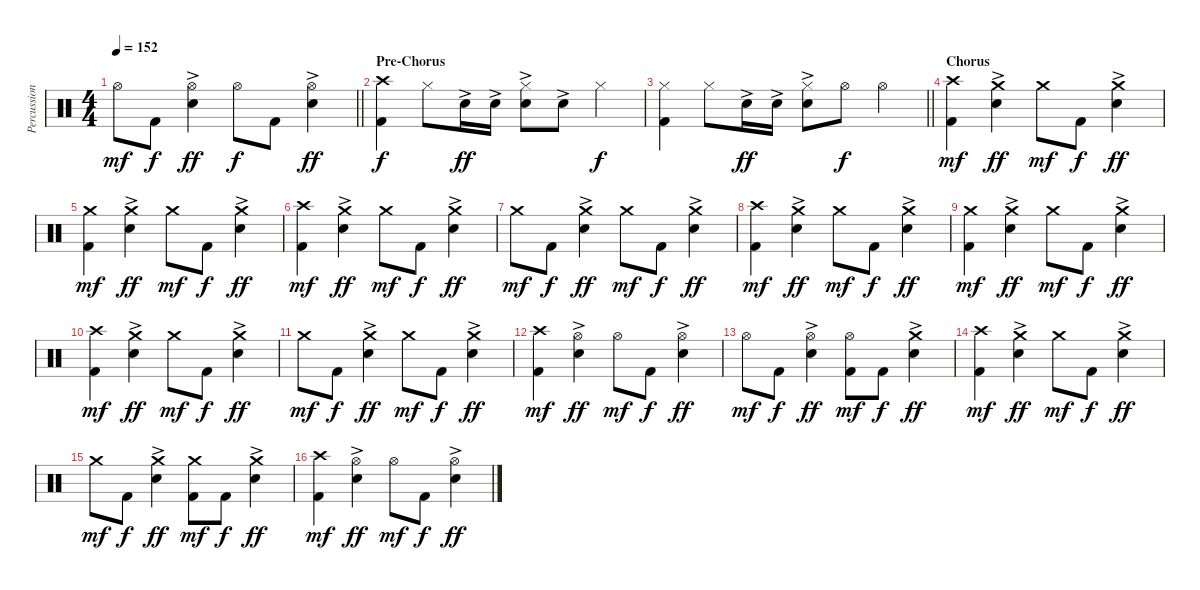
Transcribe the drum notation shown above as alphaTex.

\track ("Percussion" "Percussion") {instrument percussion}
\staff {score}
\articulation defaults
\ts (4 4)
\tempo 152
\clef neutral
\barLineRight lightlight
\ks c "Hi-Hat (open)".8{dy mf} "Kick (hit) 2".8{dy f}
("Hi-Hat (open)" "Electric Snare (hit)"{ac}).4{dy ff} "Hi-Hat (open)".8{dy f} "Kick (hit) 2".8 ("Hi-Hat (open)" "Electric Snare (hit)"{ac}).4{dy ff} |
\section ("" "Pre-Chorus")
("Crash high (hit)" "Kick (hit) 2").4{dy f} "Hi-Hat (closed)".8 "Electric Snare (hit)"{ac}.16{dy ff} "Electric Snare (hit)"{ac}.16 ("Hi-Hat (closed)" "Electric Snare (hit)"{ac}).8 "Electric Snare (hit)"{ac}.8 "Hi-Hat (closed)".4{dy f} |
\barLineRight lightlight
("Hi-Hat (closed)" "Kick (hit) 2").4 "Hi-Hat (closed)".8 "Electric Snare (hit)"{ac}.16{dy ff} "Electric Snare (hit)"{ac}.16 ("Hi-Hat (closed)" "Electric Snare (hit)"{ac}).8 "Hi-Hat (open)".8{dy f} "Hi-Hat (open)".4 |
\section ("" "Chorus")
("Crash high (hit)" "Kick (hit) 2").4{dy mf} ("Crash medium (hit)" "Electric Snare (hit)"{ac}).4{dy ff} "Crash medium (hit)".8{dy mf} "Kick (hit) 2".8{dy f} ("Crash medium (hit)" "Electric Snare (hit)"{ac}).4{dy ff} |
("Crash medium (hit)" "Kick (hit) 2").4{dy mf} ("Crash medium (hit)" "Electric Snare (hit)"{ac}).4{dy ff} "Crash medium (hit)".8{dy mf} "Kick (hit) 2".8{dy f} ("Crash medium (hit)" "Electric Snare (hit)"{ac}).4{dy ff} |
("Crash high (hit)" "Kick (hit) 2").4{dy mf} ("Crash medium (hit)" "Electric Snare (hit)"{ac}).4{dy ff} "Crash medium (hit)".8{dy mf} "Kick (hit) 2".8{dy f} ("Crash medium (hit)" "Electric Snare (hit)"{ac}).4{dy ff} |
"Crash medium (hit)".8{dy mf} "Kick (hit) 2".8{dy f} ("Crash medium (hit)" "Electric Snare (hit)"{ac}).4{dy ff} "Crash medium (hit)".8{dy mf} "Kick (hit) 2".8{dy f} ("Crash medium (hit)" "Electric Snare (hit)"{ac}).4{dy ff} |
("Crash high (hit)" "Kick (hit) 2").4{dy mf} ("Crash medium (hit)" "Electric Snare (hit)"{ac}).4{dy ff} "Crash medium (hit)".8{dy mf} "Kick (hit) 2".8{dy f} ("Crash medium (hit)" "Electric Snare (hit)"{ac}).4{dy ff} |
("Crash medium (hit)" "Kick (hit) 2").4{dy mf} ("Crash medium (hit)" "Electric Snare (hit)"{ac}).4{dy ff} "Crash medium (hit)".8{dy mf} "Kick (hit) 2".8{dy f} ("Crash medium (hit)" "Electric Snare (hit)"{ac}).4{dy ff} |
("Crash high (hit)" "Kick (hit) 2").4{dy mf} ("Crash medium (hit)" "Electric Snare (hit)"{ac}).4{dy ff} "Crash medium (hit)".8{dy mf} "Kick (hit) 2".8{dy f} ("Crash medium (hit)" "Electric Snare (hit)"{ac}).4{dy ff} |
"Crash medium (hit)".8{dy mf} "Kick (hit) 2".8{dy f} ("Crash medium (hit)" "Electric Snare (hit)"{ac}).4{dy ff} "Crash medium (hit)".8{dy mf} "Kick (hit) 2".8{dy f} ("Crash medium (hit)" "Electric Snare (hit)"{ac}).4{dy ff} |
("Crash high (hit)" "Kick (hit) 2").4{dy mf} ("Hi-Hat (open)" "Electric Snare (hit)"{ac}).4{dy ff} "Hi-Hat (open)".8{dy mf} "Kick (hit) 2".8{dy f} ("Hi-Hat (open)" "Electric Snare (hit)"{ac}).4{dy ff} |
"Hi-Hat (open)".8{dy mf} "Kick (hit) 2".8{dy f} ("Hi-Hat (open)" "Electric Snare (hit)"{ac}).4{dy ff} ("Hi-Hat (open)" "Kick (hit) 2").8{dy mf} "Kick (hit) 2".8{dy f} ("Crash medium (hit)" "Electric Snare (hit)"{ac}).4{dy ff} |
("Crash high (hit)" "Kick (hit) 2").4{dy mf} ("Crash medium (hit)" "Electric Snare (hit)"{ac}).4{dy ff} "Crash medium (hit)".8{dy mf} "Kick (hit) 2".8{dy f} ("Crash medium (hit)" "Electric Snare (hit)"{ac}).4{dy ff} |
"Crash medium (hit)".8{dy mf} "Kick (hit) 2".8{dy f} ("Crash medium (hit)" "Electric Snare (hit)"{ac}).4{dy ff} ("Crash medium (hit)" "Kick (hit) 2").8{dy mf} "Kick (hit) 2".8{dy f} ("Crash medium (hit)" "Electric Snare (hit)"{ac}).4{dy ff} |
("Crash high (hit)" "Kick (hit) 2").4{dy mf} ("Hi-Hat (open)" "Electric Snare (hit)"{ac}).4{dy ff} "Hi-Hat (open)".8{dy mf} "Kick (hit) 2".8{dy f} ("Hi-Hat (open)" "Electric Snare (hit)"{ac}).4{dy ff}
